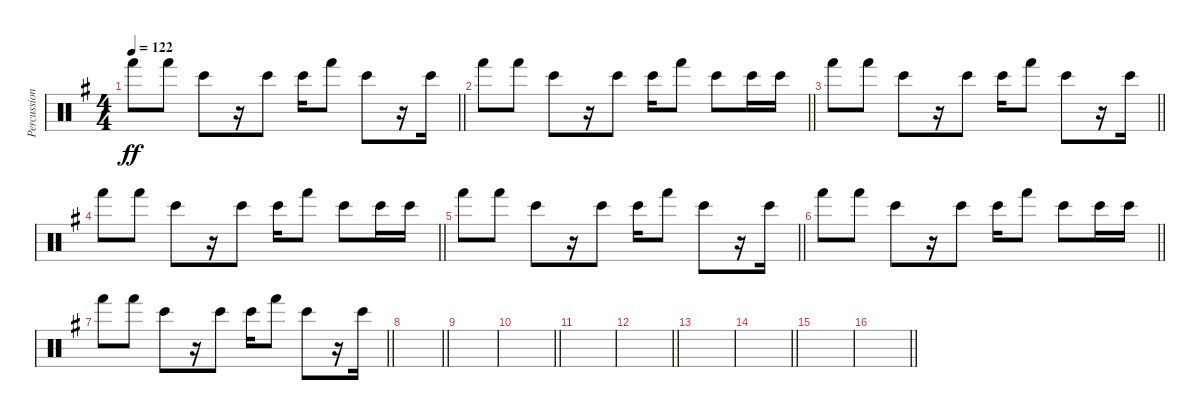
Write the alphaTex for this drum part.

\track ("Percussion" "Percussion") {instrument percussion}
\staff {score}
\articulation defaults
\ts (4 4)
\tempo 122
\clef neutral
\barLineRight lightlight
\ks g "Hand (hit)".8{dy ff} "Hand (hit)".8 "Bongo High (hit)".8
r.16 "Bongo High (hit)".8 "Bongo High (hit)".16 "Hand (hit)".8 "Bongo High (hit)".8 r.16 "Bongo High (hit)".16 |
\barLineRight lightlight "Hand (hit)".8 "Hand (hit)".8 "Bongo High (hit)".8
r.16 "Bongo High (hit)".8 "Bongo High (hit)".16 "Hand (hit)".8 "Bongo High (hit)".8 "Bongo High (hit)".16 "Bongo High (hit)".16 |
\barLineRight lightlight "Hand (hit)".8 "Hand (hit)".8 "Bongo High (hit)".8
r.16 "Bongo High (hit)".8 "Bongo High (hit)".16 "Hand (hit)".8 "Bongo High (hit)".8 r.16 "Bongo High (hit)".16 |
\barLineRight lightlight "Hand (hit)".8 "Hand (hit)".8 "Bongo High (hit)".8
r.16 "Bongo High (hit)".8 "Bongo High (hit)".16 "Hand (hit)".8 "Bongo High (hit)".8 "Bongo High (hit)".16 "Bongo High (hit)".16 |
\barLineRight lightlight "Hand (hit)".8 "Hand (hit)".8 "Bongo High (hit)".8
r.16 "Bongo High (hit)".8 "Bongo High (hit)".16 "Hand (hit)".8 "Bongo High (hit)".8 r.16 "Bongo High (hit)".16 |
\barLineRight lightlight "Hand (hit)".8 "Hand (hit)".8 "Bongo High (hit)".8
r.16 "Bongo High (hit)".8 "Bongo High (hit)".16 "Hand (hit)".8 "Bongo High (hit)".8 "Bongo High (hit)".16 "Bongo High (hit)".16 |
\barLineRight lightlight "Hand (hit)".8 "Hand (hit)".8 "Bongo High (hit)".8
r.16 "Bongo High (hit)".8 "Bongo High (hit)".16 "Hand (hit)".8 "Bongo High (hit)".8 r.16 "Bongo High (hit)".16 |
\barLineRight lightlight
|
|
\barLineRight lightlight
|
|
\barLineRight lightlight
|
|
\barLineRight lightlight
|
|
\barLineRight lightlight
